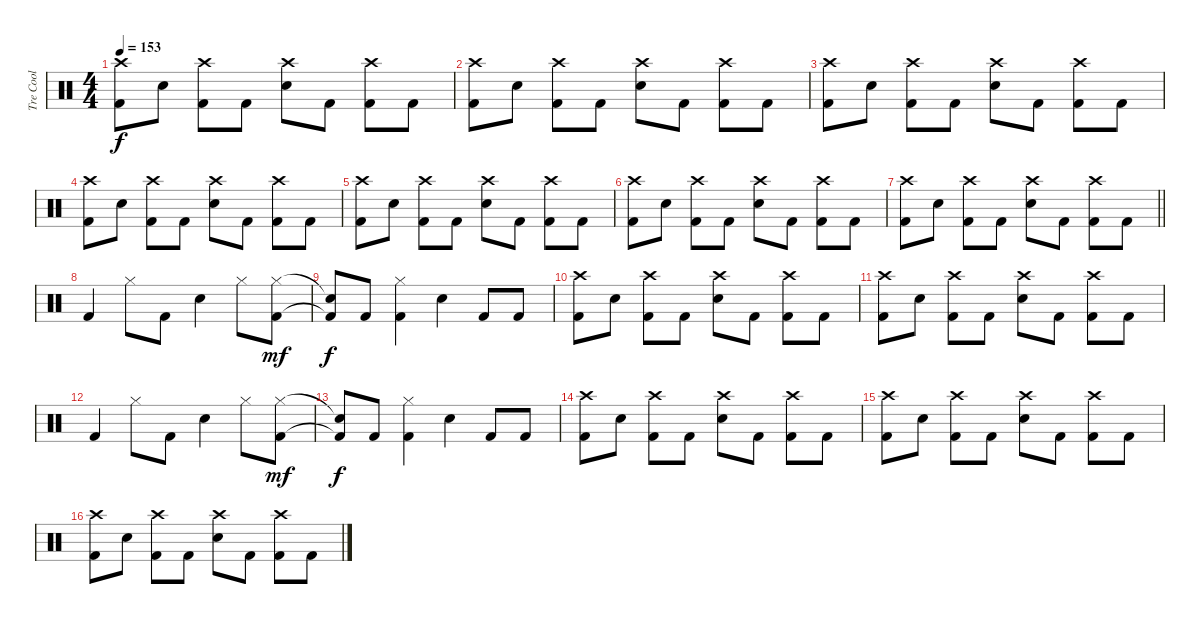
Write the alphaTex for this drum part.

\track ("Tre Cool" "Tre Cool") {instrument percussion}
\staff {score}
\articulation defaults
\ts (4 4)
\tempo 153
\clef neutral
\ks c
("Kick (hit) 2" "Crash high (hit)").8{dy f} "Snare (hit) 2".8 ("Kick (hit) 2" "Crash high (hit)").8 "Kick (hit) 2".8 ("Snare (hit) 2" "Crash high (hit)").8 "Kick (hit) 2".8 ("Kick (hit) 2" "Crash high (hit)").8 "Kick (hit) 2".8 |
("Kick (hit) 2" "Crash high (hit)").8 "Snare (hit) 2".8 ("Kick (hit) 2" "Crash high (hit)").8 "Kick (hit) 2".8 ("Snare (hit) 2" "Crash high (hit)").8 "Kick (hit) 2".8 ("Kick (hit) 2" "Crash high (hit)").8 "Kick (hit) 2".8 |
("Kick (hit) 2" "Crash high (hit)").8 "Snare (hit) 2".8 ("Kick (hit) 2" "Crash high (hit)").8 "Kick (hit) 2".8 ("Snare (hit) 2" "Crash high (hit)").8 "Kick (hit) 2".8 ("Kick (hit) 2" "Crash high (hit)").8 "Kick (hit) 2".8 |
("Kick (hit) 2" "Crash high (hit)").8 "Snare (hit) 2".8 ("Kick (hit) 2" "Crash high (hit)").8 "Kick (hit) 2".8 ("Snare (hit) 2" "Crash high (hit)").8 "Kick (hit) 2".8 ("Kick (hit) 2" "Crash high (hit)").8 "Kick (hit) 2".8 |
("Kick (hit) 2" "Crash high (hit)").8 "Snare (hit) 2".8 ("Kick (hit) 2" "Crash high (hit)").8 "Kick (hit) 2".8 ("Snare (hit) 2" "Crash high (hit)").8 "Kick (hit) 2".8 ("Kick (hit) 2" "Crash high (hit)").8 "Kick (hit) 2".8 |
("Kick (hit) 2" "Crash high (hit)").8 "Snare (hit) 2".8 ("Kick (hit) 2" "Crash high (hit)").8 "Kick (hit) 2".8 ("Snare (hit) 2" "Crash high (hit)").8 "Kick (hit) 2".8 ("Kick (hit) 2" "Crash high (hit)").8 "Kick (hit) 2".8 |
\barLineRight lightlight
("Kick (hit) 2" "Crash high (hit)").8 "Snare (hit) 2".8 ("Kick (hit) 2" "Crash high (hit)").8 "Kick (hit) 2".8 ("Snare (hit) 2" "Crash high (hit)").8 "Kick (hit) 2".8 ("Kick (hit) 2" "Crash high (hit)").8 "Kick (hit) 2".8 |
"Kick (hit) 2".4 "Hi-Hat (closed)".8 "Kick (hit) 2".8 "Snare (hit) 2".4 "Hi-Hat (closed)".8 ("Kick (hit) 2" "Hi-Hat (closed)").8{dy mf} |
("Kick (hit) 2"{t} "Snare (hit)"{t}).8{dy f} "Kick (hit) 2".8 ("Kick (hit) 2" "Hi-Hat (closed)").4 "Snare (hit) 2".4 "Kick (hit) 2".8 "Kick (hit) 2".8 |
("Kick (hit) 2" "Crash high (hit)").8 "Snare (hit) 2".8 ("Kick (hit) 2" "Crash high (hit)").8 "Kick (hit) 2".8 ("Snare (hit) 2" "Crash high (hit)").8 "Kick (hit) 2".8 ("Kick (hit) 2" "Crash high (hit)").8 "Kick (hit) 2".8 |
("Kick (hit) 2" "Crash high (hit)").8 "Snare (hit) 2".8 ("Kick (hit) 2" "Crash high (hit)").8 "Kick (hit) 2".8 ("Snare (hit) 2" "Crash high (hit)").8 "Kick (hit) 2".8 ("Kick (hit) 2" "Crash high (hit)").8 "Kick (hit) 2".8 |
"Kick (hit) 2".4 "Hi-Hat (closed)".8 "Kick (hit) 2".8 "Snare (hit) 2".4 "Hi-Hat (closed)".8 ("Kick (hit) 2" "Hi-Hat (closed)").8{dy mf} |
("Kick (hit) 2"{t} "Snare (hit)"{t}).8{dy f} "Kick (hit) 2".8 ("Kick (hit) 2" "Hi-Hat (closed)").4 "Snare (hit) 2".4 "Kick (hit) 2".8 "Kick (hit) 2".8 |
("Kick (hit) 2" "Crash high (hit)").8 "Snare (hit) 2".8 ("Kick (hit) 2" "Crash high (hit)").8 "Kick (hit) 2".8 ("Snare (hit) 2" "Crash high (hit)").8 "Kick (hit) 2".8 ("Kick (hit) 2" "Crash high (hit)").8 "Kick (hit) 2".8 |
("Kick (hit) 2" "Crash high (hit)").8 "Snare (hit) 2".8 ("Kick (hit) 2" "Crash high (hit)").8 "Kick (hit) 2".8 ("Snare (hit) 2" "Crash high (hit)").8 "Kick (hit) 2".8 ("Kick (hit) 2" "Crash high (hit)").8 "Kick (hit) 2".8 |
("Kick (hit) 2" "Crash high (hit)").8 "Snare (hit) 2".8 ("Kick (hit) 2" "Crash high (hit)").8 "Kick (hit) 2".8 ("Snare (hit) 2" "Crash high (hit)").8 "Kick (hit) 2".8 ("Kick (hit) 2" "Crash high (hit)").8 "Kick (hit) 2".8
